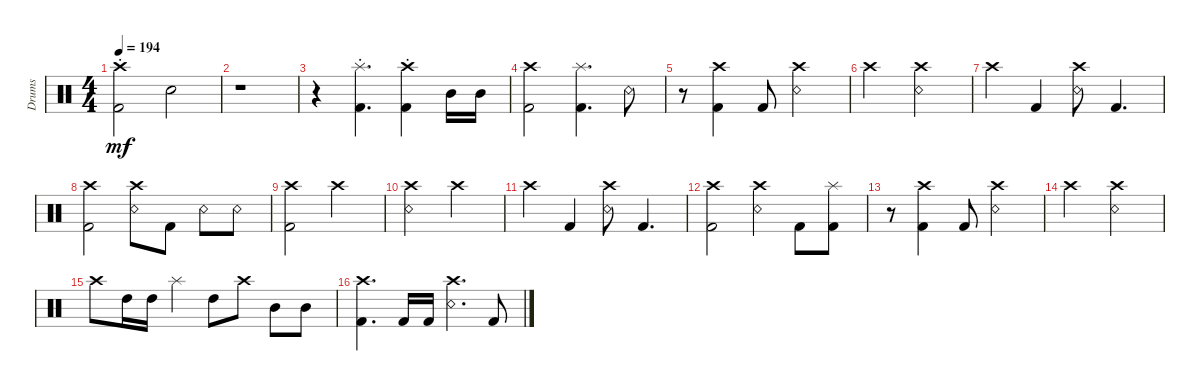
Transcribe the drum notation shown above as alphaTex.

\track ("Drums" "Drums") {instrument percussion}
\staff {score}
\articulation defaults
\ts (4 4)
\tempo 194
\clef neutral
\ks c
("Crash high (hit)"{st} "Kick (hit) 2").2{dy mf} "Snare (hit) 2".2 |
r.1 |
r.4 ("Splash (hit)" "Kick (hit) 2"{st}).4{d} ("Crash high (hit)" "Kick (hit) 2"{st}).4 "Mid Tom (hit)".16 "Mid Tom (hit)".16 |
("Crash high (hit)" "Kick (hit) 2").2 ("Splash (hit)" "Kick (hit) 2").4{d} "Snare (rim shot)".8 |
r.8 ("Crash high (hit)" "Kick (hit) 2").4 "Kick (hit) 2".8 ("Crash high (hit)" "Snare (rim shot)").2 |
"Crash high (hit)".2 ("Crash high (hit)" "Snare (rim shot)").2 |
"Crash high (hit)".4 "Kick (hit) 2".4 ("Crash high (hit)" "Snare (rim shot)").8 "Kick (hit) 2".4{d} |
("Crash high (hit)" "Kick (hit) 2").2 ("Crash high (hit)" "Snare (rim shot)").8 "Kick (hit) 2".8 "Snare (rim shot)".8 "Snare (rim shot)".8 |
("Crash high (hit)" "Kick (hit) 2").2 "Crash high (hit)".2 |
("Crash high (hit)" "Snare (rim shot)").2 "Crash high (hit)".2 |
"Crash high (hit)".4 "Kick (hit) 2".4 ("Crash high (hit)" "Snare (rim shot)").8 "Kick (hit) 2".4{d} |
("Crash high (hit)" "Kick (hit) 2").2 ("Crash high (hit)" "Snare (rim shot)").4 "Kick (hit) 2".8 ("Splash (hit)" "Kick (hit) 2").8 |
r.8 ("Crash high (hit)" "Kick (hit) 2").4 "Kick (hit) 2".8 ("Crash high (hit)" "Snare (rim shot)").2 |
"Crash high (hit)".2 ("Crash high (hit)" "Snare (rim shot)").2 |
"Crash high (hit)".8 "High Tom (hit)".16 "High Tom (hit)".16 "Splash (hit)".4 "High Tom (hit)".8 "Crash high (hit)".8 "Mid Tom (hit)".8 "Mid Tom (hit)".8 |
("Crash high (hit)" "Kick (hit) 2").4{d} "Kick (hit) 2".16 "Kick (hit) 2".16 ("Crash high (hit)" "Snare (rim shot)").4{d} "Kick (hit) 2".8
